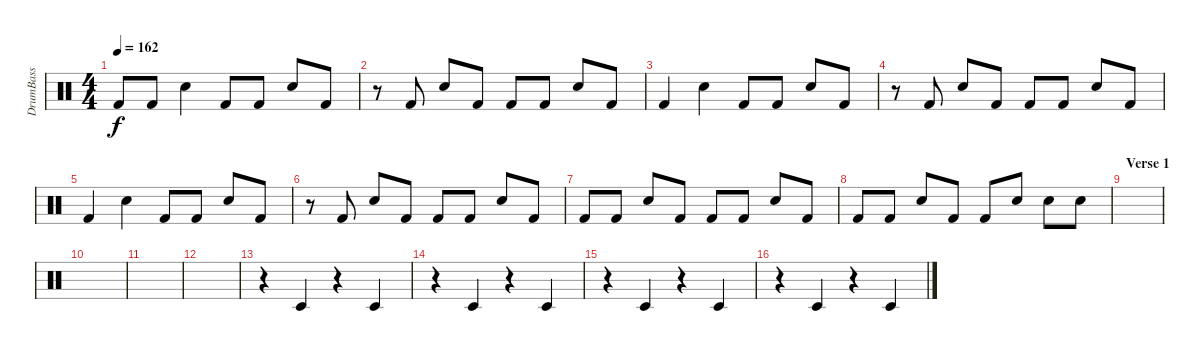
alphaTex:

\track ("DrumBass" "DrumBass") {instrument percussion}
\staff {score}
\articulation defaults
\ts (4 4)
\tempo 162
\clef neutral
\ks c "Kick (hit) 2".8{dy f} "Kick (hit) 2".8 "Snare (hit) 2".4 "Kick (hit) 2".8 "Kick (hit) 2".8 "Snare (hit) 2".8 "Kick (hit) 2".8
|
r.8 "Kick (hit) 2".8 "Snare (hit) 2".8 "Kick (hit) 2".8 "Kick (hit) 2".8 "Kick (hit) 2".8 "Snare (hit) 2".8 "Kick (hit) 2".8 |
"Kick (hit) 2".4 "Snare (hit) 2".4 "Kick (hit) 2".8 "Kick (hit) 2".8 "Snare (hit) 2".8 "Kick (hit) 2".8 |
r.8 "Kick (hit) 2".8 "Snare (hit) 2".8 "Kick (hit) 2".8 "Kick (hit) 2".8 "Kick (hit) 2".8 "Snare (hit) 2".8 "Kick (hit) 2".8 |
"Kick (hit) 2".4 "Snare (hit) 2".4 "Kick (hit) 2".8 "Kick (hit) 2".8 "Snare (hit) 2".8 "Kick (hit) 2".8 |
r.8 "Kick (hit) 2".8 "Snare (hit) 2".8 "Kick (hit) 2".8 "Kick (hit) 2".8 "Kick (hit) 2".8 "Snare (hit) 2".8 "Kick (hit) 2".8 |
"Kick (hit) 2".8 "Kick (hit) 2".8 "Snare (hit) 2".8 "Kick (hit) 2".8 "Kick (hit) 2".8 "Kick (hit) 2".8 "Snare (hit) 2".8 "Kick (hit) 2".8 |
"Kick (hit) 2".8 "Kick (hit) 2".8 "Snare (hit) 2".8 "Kick (hit) 2".8 "Kick (hit) 2".8 "Snare (hit) 2"{tr (38 16)}.8 "Snare (hit) 2"{tr (38 16)}.8 "Snare (hit) 2"{tr (38 16)}.8 |
\section ("" "Verse 1")
|
|
|
|
r.4 "Timbale low (hit)".4{volume 3} r.4 "Timbale low (hit)".4{volume 5} |
r.4 "Timbale low (hit)".4{volume 8} r.4 "Timbale low (hit)".4{volume 9} |
r.4 "Timbale low (hit)".4{volume 12} r.4 "Timbale low (hit)".4{volume 14} |
r.4 "Timbale low (hit)".4 r.4 "Timbale low (hit)".4
